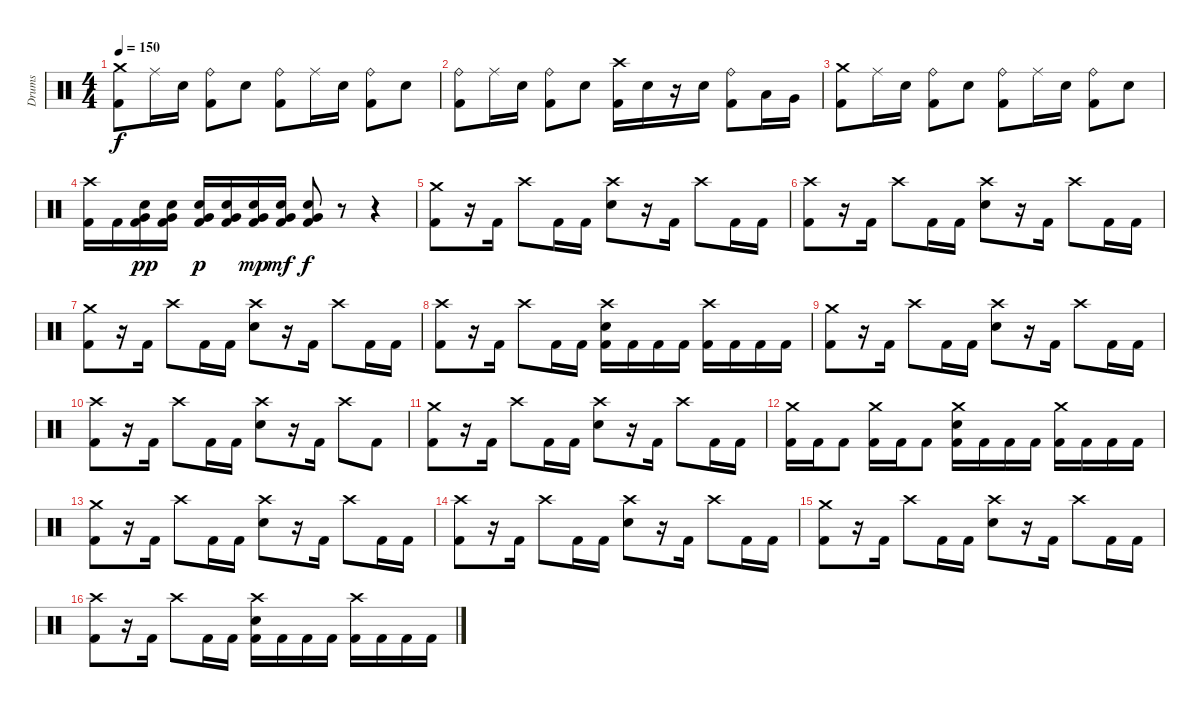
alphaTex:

\track ("Drums" "Drums") {instrument percussion}
\staff {score}
\articulation defaults
\ts (4 4)
\tempo 150
\clef neutral
\ks c
("Crash medium (hit)" "Kick (hit) 2").8{dy f} "Ride (middle)".16 "Electric Snare (hit)".16 ("Ride (bell)" "Kick (hit) 2").8 "Electric Snare (hit)".8 ("Ride (bell)" "Kick (hit) 2").8 "Ride (middle)".16 "Electric Snare (hit)".16 ("Ride (bell)" "Kick (hit) 2").8 "Electric Snare (hit)".8 |
("Ride (bell)" "Kick (hit) 2").8 "Ride (middle)".16 "Electric Snare (hit)".16 ("Ride (bell)" "Kick (hit) 2").8 "Electric Snare (hit)".8 ("Crash high (hit)" "Kick (hit) 2").16 "Electric Snare (hit)".16 r.16 "Electric Snare (hit)".16 ("Ride (bell)" "Kick (hit) 2").8 "Low Tom (hit)".16 "Very Low Tom (hit)".16 |
("Crash medium (hit)" "Kick (hit) 2").8 "Ride (middle)".16 "Electric Snare (hit)".16 ("Ride (bell)" "Kick (hit) 2").8 "Electric Snare (hit)".8 ("Ride (bell)" "Kick (hit) 2").8 "Ride (middle)".16 "Electric Snare (hit)".16 ("Ride (bell)" "Kick (hit) 2").8 "Electric Snare (hit)".8 |
("Crash high (hit)" "Kick (hit) 2").16 "Kick (hit) 2".16 ("Very Low Tom (hit)" "Electric Snare (hit)" "Kick (hit) 2").16{dy pp} ("Very Low Tom (hit)" "Electric Snare (hit)" "Kick (hit) 2").16 ("Very Low Tom (hit)" "Electric Snare (hit)" "Kick (hit) 2").16{dy p} ("Very Low Tom (hit)" "Electric Snare (hit)" "Kick (hit) 2").16 ("Very Low Tom (hit)" "Electric Snare (hit)" "Kick (hit) 2").16{dy mp} ("Very Low Tom (hit)" "Electric Snare (hit)" "Kick (hit) 2").16{dy mf} ("Very Low Tom (hit)" "Electric Snare (hit)" "Kick (hit) 2").8{dy f} r.8 r.4 |
("Crash medium (hit)" "Kick (hit) 2").8 r.16 "Kick (hit) 2".16 "Crash high (hit)".8 "Kick (hit) 2".16 "Kick (hit) 2".16 ("Crash high (hit)" "Electric Snare (hit)").8 r.16 "Kick (hit) 2".16 "Crash high (hit)".8 "Kick (hit) 2".16 "Kick (hit) 2".16 |
("Crash high (hit)" "Kick (hit) 2").8 r.16 "Kick (hit) 2".16 "Crash high (hit)".8 "Kick (hit) 2".16 "Kick (hit) 2".16 ("Crash high (hit)" "Electric Snare (hit)").8 r.16 "Kick (hit) 2".16 "Crash high (hit)".8 "Kick (hit) 2".16 "Kick (hit) 2".16 |
("Crash medium (hit)" "Kick (hit) 2").8 r.16 "Kick (hit) 2".16 "Crash high (hit)".8 "Kick (hit) 2".16 "Kick (hit) 2".16 ("Crash high (hit)" "Electric Snare (hit)").8 r.16 "Kick (hit) 2".16 "Crash high (hit)".8 "Kick (hit) 2".16 "Kick (hit) 2".16 |
("Crash high (hit)" "Kick (hit) 2").8 r.16 "Kick (hit) 2".16 "Crash high (hit)".8 "Kick (hit) 2".16 "Kick (hit) 2".16 ("Crash high (hit)" "Electric Snare (hit)" "Kick (hit) 2").16 "Kick (hit) 2".16 "Kick (hit) 2".16 "Kick (hit) 2".16 ("Crash high (hit)" "Kick (hit) 2").16 "Kick (hit) 2".16 "Kick (hit) 2".16 "Kick (hit) 2".16 |
("Crash medium (hit)" "Kick (hit) 2").8 r.16 "Kick (hit) 2".16 "Crash high (hit)".8 "Kick (hit) 2".16 "Kick (hit) 2".16 ("Crash high (hit)" "Electric Snare (hit)").8 r.16 "Kick (hit) 2".16 "Crash high (hit)".8 "Kick (hit) 2".16 "Kick (hit) 2".16 |
("Crash high (hit)" "Kick (hit) 2").8 r.16 "Kick (hit) 2".16 "Crash high (hit)".8 "Kick (hit) 2".16 "Kick (hit) 2".16 ("Crash high (hit)" "Electric Snare (hit)").8 r.16 "Kick (hit) 2".16 "Crash high (hit)".8 "Kick (hit) 2".8 |
("Crash medium (hit)" "Kick (hit) 2").8 r.16 "Kick (hit) 2".16 "Crash high (hit)".8 "Kick (hit) 2".16 "Kick (hit) 2".16 ("Crash high (hit)" "Electric Snare (hit)").8 r.16 "Kick (hit) 2".16 "Crash high (hit)".8 "Kick (hit) 2".16 "Kick (hit) 2".16 |
("Crash medium (hit)" "Kick (hit) 2").16 "Kick (hit) 2".16 "Kick (hit) 2".8 ("Crash medium (hit)" "Kick (hit) 2").16 "Kick (hit) 2".16 "Kick (hit) 2".8 ("Crash medium (hit)" "Electric Snare (hit)" "Kick (hit) 2").16 "Kick (hit) 2".16 "Kick (hit) 2".16 "Kick (hit) 2".16 ("Crash medium (hit)" "Kick (hit) 2").16 "Kick (hit) 2".16 "Kick (hit) 2".16 "Kick (hit) 2".16 |
("Crash medium (hit)" "Kick (hit) 2").8 r.16 "Kick (hit) 2".16 "Crash high (hit)".8 "Kick (hit) 2".16 "Kick (hit) 2".16 ("Crash high (hit)" "Electric Snare (hit)").8 r.16 "Kick (hit) 2".16 "Crash high (hit)".8 "Kick (hit) 2".16 "Kick (hit) 2".16 |
("Crash high (hit)" "Kick (hit) 2").8 r.16 "Kick (hit) 2".16 "Crash high (hit)".8 "Kick (hit) 2".16 "Kick (hit) 2".16 ("Crash high (hit)" "Electric Snare (hit)").8 r.16 "Kick (hit) 2".16 "Crash high (hit)".8 "Kick (hit) 2".16 "Kick (hit) 2".16 |
("Crash medium (hit)" "Kick (hit) 2").8 r.16 "Kick (hit) 2".16 "Crash high (hit)".8 "Kick (hit) 2".16 "Kick (hit) 2".16 ("Crash high (hit)" "Electric Snare (hit)").8 r.16 "Kick (hit) 2".16 "Crash high (hit)".8 "Kick (hit) 2".16 "Kick (hit) 2".16 |
("Crash high (hit)" "Kick (hit) 2").8 r.16 "Kick (hit) 2".16 "Crash high (hit)".8 "Kick (hit) 2".16 "Kick (hit) 2".16 ("Crash high (hit)" "Electric Snare (hit)" "Kick (hit) 2").16 "Kick (hit) 2".16 "Kick (hit) 2".16 "Kick (hit) 2".16 ("Crash high (hit)" "Kick (hit) 2").16 "Kick (hit) 2".16 "Kick (hit) 2".16 "Kick (hit) 2".16
